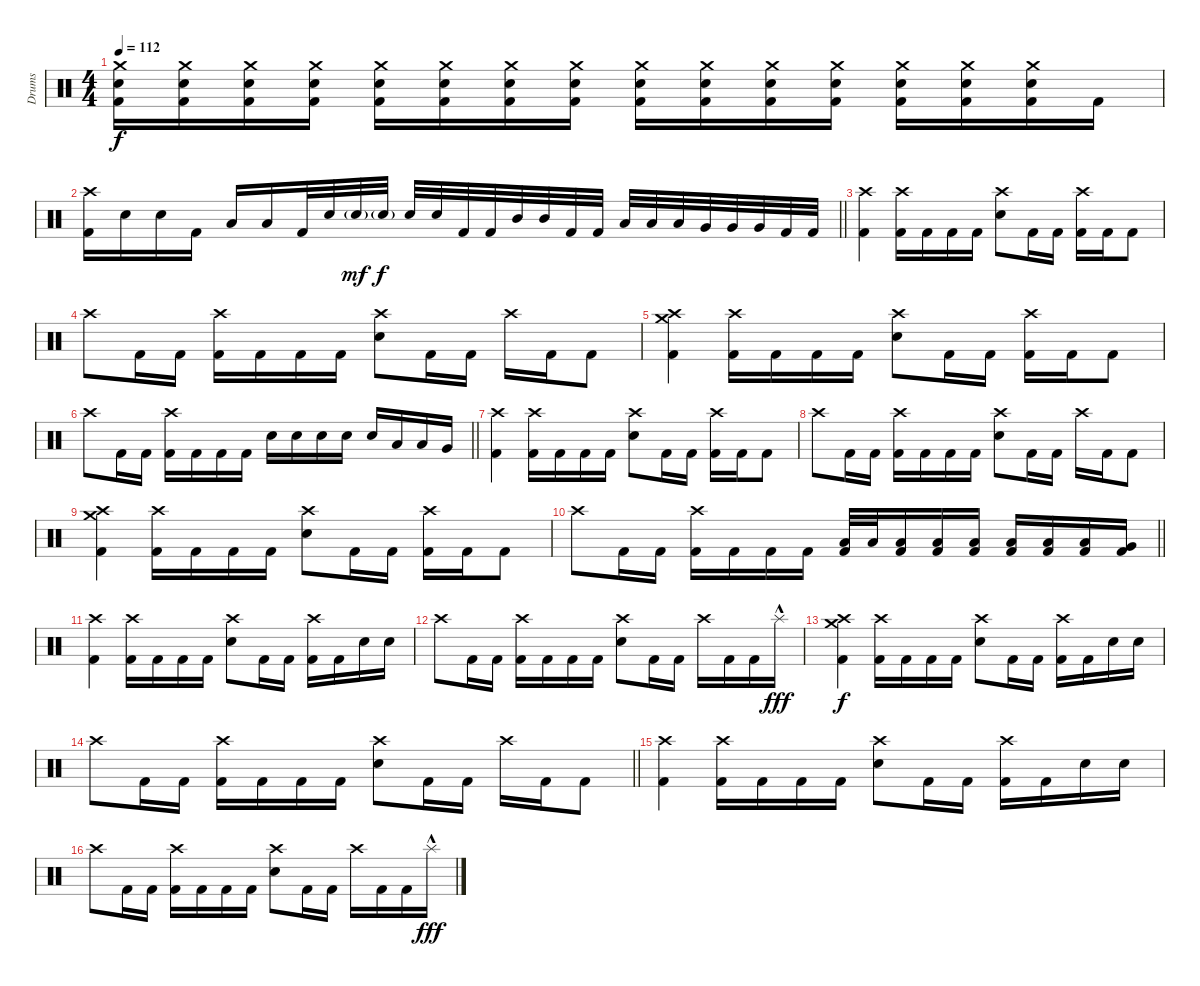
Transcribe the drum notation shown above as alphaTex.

\track ("Drums" "Drums") {instrument percussion}
\staff {score}
\articulation defaults
\ts (4 4)
\tempo 112
\clef neutral
\ks c
("Crash medium (hit)" "Electric Snare (hit)" "Kick (hit) 2").16{dy f} ("Crash medium (hit)" "Electric Snare (hit)" "Kick (hit) 2").16 ("Crash medium (hit)" "Electric Snare (hit)" "Kick (hit) 2").16 ("Crash medium (hit)" "Electric Snare (hit)" "Kick (hit) 2").16 ("Crash medium (hit)" "Electric Snare (hit)" "Kick (hit) 2").16 ("Crash medium (hit)" "Electric Snare (hit)" "Kick (hit) 2").16 ("Crash medium (hit)" "Electric Snare (hit)" "Kick (hit) 2").16 ("Crash medium (hit)" "Electric Snare (hit)" "Kick (hit) 2").16 ("Crash medium (hit)" "Electric Snare (hit)" "Kick (hit) 2").16 ("Crash medium (hit)" "Electric Snare (hit)" "Kick (hit) 2").16 ("Crash medium (hit)" "Electric Snare (hit)" "Kick (hit) 2").16 ("Crash medium (hit)" "Electric Snare (hit)" "Kick (hit) 2").16 ("Crash medium (hit)" "Electric Snare (hit)" "Kick (hit) 2").16 ("Crash medium (hit)" "Electric Snare (hit)" "Kick (hit) 2").16 ("Crash medium (hit)" "Electric Snare (hit)" "Kick (hit) 2").16 "Kick (hit) 2".16 |
\barLineRight lightlight
("Crash high (hit)" "Kick (hit) 2").16 "Electric Snare (hit)".16 "Electric Snare (hit)".16 "Kick (hit) 2".16 "Low Tom (hit)".16 "Low Tom (hit)".16 "Kick (hit) 2".32 "Electric Snare (hit)".32 "Electric Snare (hit)"{g}.32{dy mf} "Electric Snare (hit)"{g}.32{dy f} "Electric Snare (hit)".32 "Electric Snare (hit)".32 "Kick (hit) 2".32 "Kick (hit) 2".32 "Mid Tom (hit)".32 "Mid Tom (hit)".32 "Kick (hit) 2".32 "Kick (hit) 2".32 "Low Tom (hit)".32 "Low Tom (hit)".32 "Low Tom (hit)".32 "Very Low Tom (hit)".32 "Very Low Tom (hit)".32 "Very Low Tom (hit)".32 "Kick (hit) 2".32 "Kick (hit) 2".32 |
("Crash high (hit)" "Kick (hit) 2").4 ("Crash high (hit)" "Kick (hit) 2").16 "Kick (hit) 2".16 "Kick (hit) 2".16 "Kick (hit) 2".16 ("Crash high (hit)" "Electric Snare (hit)").8 "Kick (hit) 2".16 "Kick (hit) 2".16 ("Crash high (hit)" "Kick (hit) 2").16 "Kick (hit) 2".16 "Kick (hit) 2".8 |
"Crash high (hit)".8 "Kick (hit) 2".16 "Kick (hit) 2".16 ("Crash high (hit)" "Kick (hit) 2").16 "Kick (hit) 2".16 "Kick (hit) 2".16 "Kick (hit) 2".16 ("Crash high (hit)" "Electric Snare (hit)").8 "Kick (hit) 2".16 "Kick (hit) 2".16 "Crash high (hit)".16 "Kick (hit) 2".16 "Kick (hit) 2".8 |
("Crash high (hit)" "Crash medium (hit)" "Kick (hit) 2").4 ("Crash high (hit)" "Kick (hit) 2").16 "Kick (hit) 2".16 "Kick (hit) 2".16 "Kick (hit) 2".16 ("Crash high (hit)" "Electric Snare (hit)").8 "Kick (hit) 2".16 "Kick (hit) 2".16 ("Crash high (hit)" "Kick (hit) 2").16 "Kick (hit) 2".16 "Kick (hit) 2".8 |
\barLineRight lightlight "Crash high (hit)".8 "Kick (hit) 2".16 "Kick (hit) 2".16
("Crash high (hit)" "Kick (hit) 2").16 "Kick (hit) 2".16 "Kick (hit) 2".16 "Kick (hit) 2".16 "Electric Snare (hit)".16 "Electric Snare (hit)".16 "Electric Snare (hit)".16 "Electric Snare (hit)".16 "Electric Snare (hit)".16 "Low Tom (hit)".16 "Low Tom (hit)".16 "Very Low Tom (hit)".16 |
("Crash high (hit)" "Kick (hit) 2").4 ("Crash high (hit)" "Kick (hit) 2").16 "Kick (hit) 2".16 "Kick (hit) 2".16 "Kick (hit) 2".16 ("Crash high (hit)" "Electric Snare (hit)").8 "Kick (hit) 2".16 "Kick (hit) 2".16 ("Crash high (hit)" "Kick (hit) 2").16 "Kick (hit) 2".16 "Kick (hit) 2".8 |
"Crash high (hit)".8 "Kick (hit) 2".16 "Kick (hit) 2".16 ("Crash high (hit)" "Kick (hit) 2").16 "Kick (hit) 2".16 "Kick (hit) 2".16 "Kick (hit) 2".16 ("Crash high (hit)" "Electric Snare (hit)").8 "Kick (hit) 2".16 "Kick (hit) 2".16 "Crash high (hit)".16 "Kick (hit) 2".16 "Kick (hit) 2".8 |
("Crash high (hit)" "Crash medium (hit)" "Kick (hit) 2").4 ("Crash high (hit)" "Kick (hit) 2").16 "Kick (hit) 2".16 "Kick (hit) 2".16 "Kick (hit) 2".16 ("Crash high (hit)" "Electric Snare (hit)").8 "Kick (hit) 2".16 "Kick (hit) 2".16 ("Crash high (hit)" "Kick (hit) 2").16 "Kick (hit) 2".16 "Kick (hit) 2".8 |
\barLineRight lightlight "Crash high (hit)".8 "Kick (hit) 2".16 "Kick (hit) 2".16
("Crash high (hit)" "Kick (hit) 2").16 "Kick (hit) 2".16 "Kick (hit) 2".16 "Kick (hit) 2".16 ("Low Tom (hit)" "Kick (hit) 2").32 "Low Tom (hit)".32 ("Low Tom (hit)" "Kick (hit) 2").16 ("Low Tom (hit)" "Kick (hit) 2").16 ("Low Tom (hit)" "Kick (hit) 2").16 ("Low Tom (hit)" "Kick (hit) 2").16 ("Low Tom (hit)" "Kick (hit) 2").16 ("Low Tom (hit)" "Kick (hit) 2").16 ("Very Low Tom (hit)" "Kick (hit) 2").16 |
("Crash high (hit)" "Kick (hit) 2").4 ("Crash high (hit)" "Kick (hit) 2").16 "Kick (hit) 2".16 "Kick (hit) 2".16 "Kick (hit) 2".16 ("Crash high (hit)" "Electric Snare (hit)").8 "Kick (hit) 2".16 "Kick (hit) 2".16 ("Crash high (hit)" "Kick (hit) 2").16 "Kick (hit) 2".16 "Electric Snare (hit)".16 "Electric Snare (hit)".16 |
"Crash high (hit)".8 "Kick (hit) 2".16 "Kick (hit) 2".16 ("Crash high (hit)" "Kick (hit) 2").16 "Kick (hit) 2".16 "Kick (hit) 2".16 "Kick (hit) 2".16 ("Crash high (hit)" "Electric Snare (hit)").8 "Kick (hit) 2".16 "Kick (hit) 2".16 "Crash high (hit)".16 "Kick (hit) 2".16 "Kick (hit) 2".16 "Splash (hit)"{hac}.16{dy fff} |
("Crash high (hit)" "Crash medium (hit)" "Kick (hit) 2").4{dy f} ("Crash high (hit)" "Kick (hit) 2").16 "Kick (hit) 2".16 "Kick (hit) 2".16 "Kick (hit) 2".16 ("Crash high (hit)" "Electric Snare (hit)").8 "Kick (hit) 2".16 "Kick (hit) 2".16 ("Crash high (hit)" "Kick (hit) 2").16 "Kick (hit) 2".16 "Electric Snare (hit)".16 "Electric Snare (hit)".16 |
\barLineRight lightlight "Crash high (hit)".8 "Kick (hit) 2".16 "Kick (hit) 2".16
("Crash high (hit)" "Kick (hit) 2").16 "Kick (hit) 2".16 "Kick (hit) 2".16 "Kick (hit) 2".16 ("Crash high (hit)" "Electric Snare (hit)").8 "Kick (hit) 2".16 "Kick (hit) 2".16 "Crash high (hit)".16 "Kick (hit) 2".16 "Kick (hit) 2".8 |
("Crash high (hit)" "Kick (hit) 2").4 ("Crash high (hit)" "Kick (hit) 2").16 "Kick (hit) 2".16 "Kick (hit) 2".16 "Kick (hit) 2".16 ("Crash high (hit)" "Electric Snare (hit)").8 "Kick (hit) 2".16 "Kick (hit) 2".16 ("Crash high (hit)" "Kick (hit) 2").16 "Kick (hit) 2".16 "Electric Snare (hit)".16 "Electric Snare (hit)".16 |
"Crash high (hit)".8 "Kick (hit) 2".16 "Kick (hit) 2".16 ("Crash high (hit)" "Kick (hit) 2").16 "Kick (hit) 2".16 "Kick (hit) 2".16 "Kick (hit) 2".16 ("Crash high (hit)" "Electric Snare (hit)").8 "Kick (hit) 2".16 "Kick (hit) 2".16 "Crash high (hit)".16 "Kick (hit) 2".16 "Kick (hit) 2".16 "Splash (hit)"{hac}.16{dy fff}
